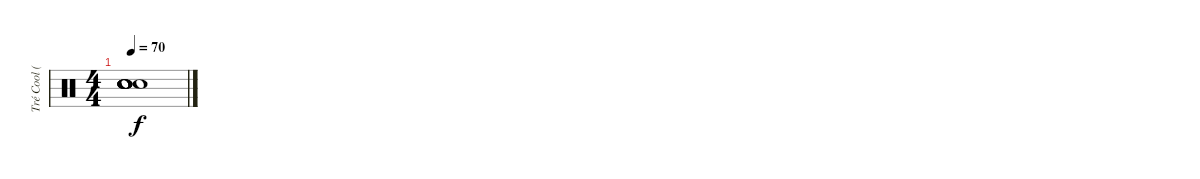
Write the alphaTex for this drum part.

\track ("Tré Cool (Drums)" "Tré Cool (") {instrument percussion}
\staff {score}
\articulation defaults
\ts (4 4)
\tempo 70
\clef neutral
\ks c
("Snare (hit)"{t} "Snare (hit)"{t} "Snare (hit)"{t} "Snare (hit)"{t} "Snare (hit)"{t} "Snare (hit)"{t}).1{dy f}
